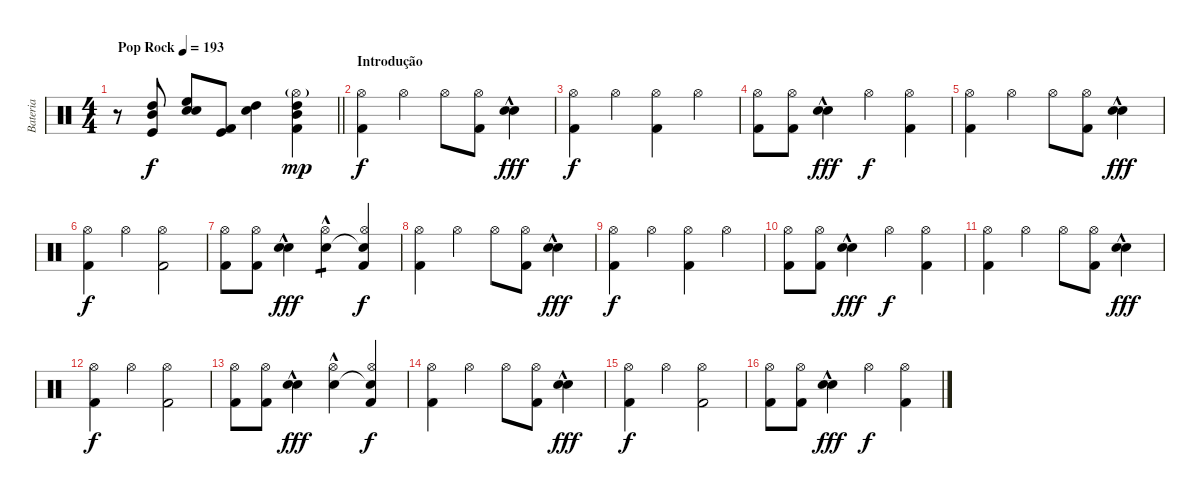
\track ("Bateria" "Bateria") {instrument percussion}
\staff {score}
\articulation defaults
\ts (4 4)
\tempo (193 "Pop Rock")
\clef neutral
\barLineRight lightlight
\ks c
r.8{dy f} ("High Tom (hit)" "Mid Tom (hit)" "Kick (hit)").8 ("High Floor Tom (hit)" "Electric Snare (hit)" "Electric Snare (hit)").8 ("Kick (hit)" "Kick (hit) 2").8 ("High Tom (hit)" "Electric Snare (hit)").4 ("Hi-Hat (open)"{g} "High Tom (hit)" "Mid Tom (hit)" "Kick (hit) 2").4{dy mp} |
\section ("" "Introdução")
("Hi-Hat (open)" "Kick (hit) 2").4{dy f} "Hi-Hat (open)".4 "Hi-Hat (open)".8 ("Hi-Hat (open)" "Kick (hit) 2").8 ("Electric Snare (hit)"{hac} "Electric Snare (hit)"{hac}).4{dy fff} |
("Hi-Hat (open)" "Kick (hit) 2").4{dy f} "Hi-Hat (open)".4 ("Hi-Hat (open)" "Kick (hit) 2").4 "Hi-Hat (open)".4 |
("Hi-Hat (open)" "Kick (hit) 2").8 ("Hi-Hat (open)" "Kick (hit) 2").8 ("Electric Snare (hit)"{hac} "Electric Snare (hit)"{hac}).4{dy fff} "Hi-Hat (open)".4{dy f} ("Hi-Hat (open)" "Kick (hit) 2").4 |
("Hi-Hat (open)" "Kick (hit) 2").4 "Hi-Hat (open)".4 "Hi-Hat (open)".8 ("Hi-Hat (open)" "Kick (hit) 2").8 ("Electric Snare (hit)"{hac} "Electric Snare (hit)"{hac}).4{dy fff} |
("Hi-Hat (open)" "Kick (hit) 2").4{dy f} "Hi-Hat (open)".4 ("Hi-Hat (open)" "Kick (hit) 2").2 |
("Hi-Hat (open)" "Kick (hit) 2").8 ("Hi-Hat (open)" "Kick (hit) 2").8 ("Electric Snare (hit)"{hac} "Electric Snare (hit)"{hac}).4{dy fff} ("Hi-Hat (open)" "Electric Snare (hit)"{hac}).4{tp 1} ("Hi-Hat (open)" "Snare (hit)"{t} "Kick (hit) 2").4{dy f} |
("Hi-Hat (open)" "Kick (hit) 2").4 "Hi-Hat (open)".4 "Hi-Hat (open)".8 ("Hi-Hat (open)" "Kick (hit) 2").8 ("Electric Snare (hit)"{hac} "Electric Snare (hit)"{hac}).4{dy fff} |
("Hi-Hat (open)" "Kick (hit) 2").4{dy f} "Hi-Hat (open)".4 ("Hi-Hat (open)" "Kick (hit) 2").4 "Hi-Hat (open)".4 |
("Hi-Hat (open)" "Kick (hit) 2").8 ("Hi-Hat (open)" "Kick (hit) 2").8 ("Electric Snare (hit)"{hac} "Electric Snare (hit)"{hac}).4{dy fff} "Hi-Hat (open)".4{dy f} ("Hi-Hat (open)" "Kick (hit) 2").4 |
("Hi-Hat (open)" "Kick (hit) 2").4 "Hi-Hat (open)".4 "Hi-Hat (open)".8 ("Hi-Hat (open)" "Kick (hit) 2").8 ("Electric Snare (hit)"{hac} "Electric Snare (hit)"{hac}).4{dy fff} |
("Hi-Hat (open)" "Kick (hit) 2").4{dy f} "Hi-Hat (open)".4 ("Hi-Hat (open)" "Kick (hit) 2").2 |
("Hi-Hat (open)" "Kick (hit) 2").8 ("Hi-Hat (open)" "Kick (hit) 2").8 ("Electric Snare (hit)"{hac} "Electric Snare (hit)"{hac}).4{dy fff} ("Hi-Hat (open)" "Electric Snare (hit)"{hac}).4 ("Hi-Hat (open)" "Snare (hit)"{t} "Kick (hit) 2").4{dy f} |
("Hi-Hat (open)" "Kick (hit) 2").4 "Hi-Hat (open)".4 "Hi-Hat (open)".8 ("Hi-Hat (open)" "Kick (hit) 2").8 ("Electric Snare (hit)"{hac} "Electric Snare (hit)"{hac}).4{dy fff} |
("Hi-Hat (open)" "Kick (hit) 2").4{dy f} "Hi-Hat (open)".4 ("Hi-Hat (open)" "Kick (hit) 2").2 |
("Hi-Hat (open)" "Kick (hit) 2").8 ("Hi-Hat (open)" "Kick (hit) 2").8 ("Electric Snare (hit)"{hac} "Electric Snare (hit)"{hac}).4{dy fff} "Hi-Hat (open)".4{dy f} ("Hi-Hat (open)" "Kick (hit) 2").4
